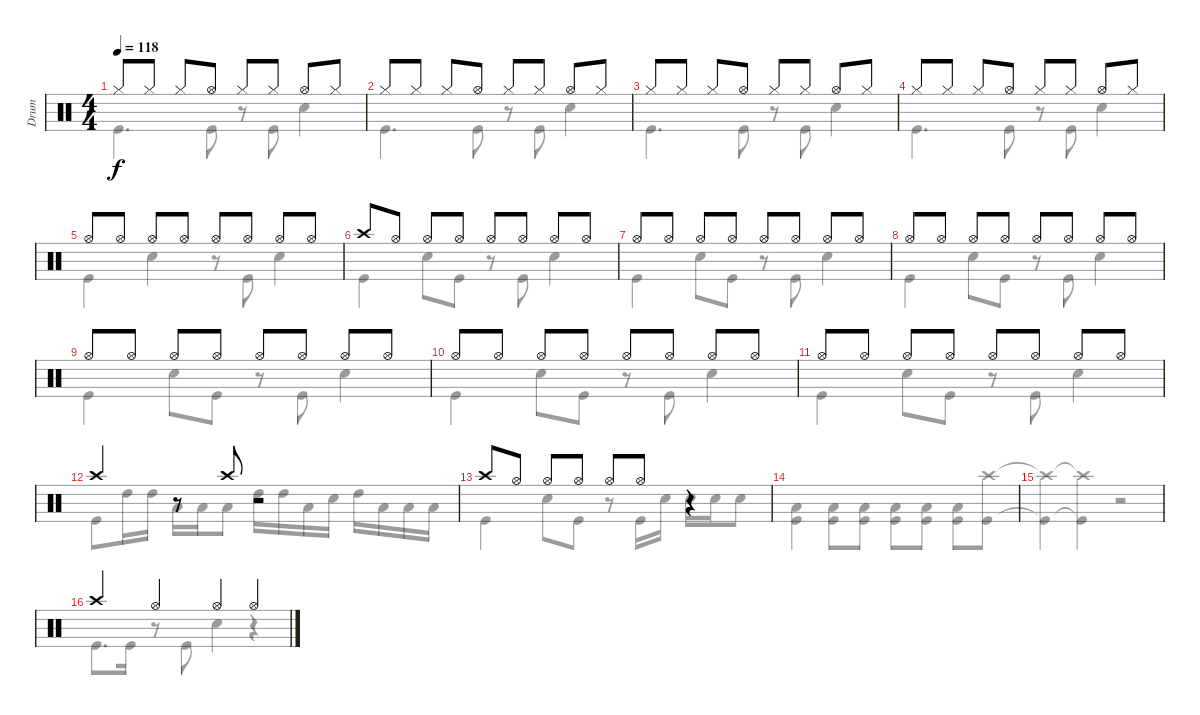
\track ("Drum" "Drum") {instrument percussion}
\staff {score}
\articulation defaults
\voice
\ts (4 4)
\tempo 118
\clef neutral
\ks c "Hi-Hat (closed)".8{dy f} "Hi-Hat (closed)".8 "Hi-Hat (closed)".8 "Hi-Hat (open)".8 "Hi-Hat (closed)".8 "Hi-Hat (closed)".8 "Hi-Hat (open)".8 "Hi-Hat (closed)".8
|
"Hi-Hat (closed)".8 "Hi-Hat (closed)".8 "Hi-Hat (closed)".8 "Hi-Hat (open)".8 "Hi-Hat (closed)".8 "Hi-Hat (closed)".8 "Hi-Hat (open)".8 "Hi-Hat (closed)".8 |
"Hi-Hat (closed)".8 "Hi-Hat (closed)".8 "Hi-Hat (closed)".8 "Hi-Hat (open)".8 "Hi-Hat (closed)".8 "Hi-Hat (closed)".8 "Hi-Hat (open)".8 "Hi-Hat (closed)".8 |
"Hi-Hat (closed)".8 "Hi-Hat (closed)".8 "Hi-Hat (closed)".8 "Hi-Hat (open)".8 "Hi-Hat (closed)".8 "Hi-Hat (closed)".8 "Hi-Hat (open)".8 "Hi-Hat (closed)".8 |
"Hi-Hat (open)".8 "Hi-Hat (open)".8 "Hi-Hat (open)".8 "Hi-Hat (open)".8 "Hi-Hat (open)".8 "Hi-Hat (open)".8 "Hi-Hat (open)".8 "Hi-Hat (open)".8 |
"Crash high (hit)".8 "Hi-Hat (open)".8 "Hi-Hat (open)".8 "Hi-Hat (open)".8 "Hi-Hat (open)".8 "Hi-Hat (open)".8 "Hi-Hat (open)".8 "Hi-Hat (open)".8 |
"Hi-Hat (open)".8 "Hi-Hat (open)".8 "Hi-Hat (open)".8 "Hi-Hat (open)".8 "Hi-Hat (open)".8 "Hi-Hat (open)".8 "Hi-Hat (open)".8 "Hi-Hat (open)".8 |
"Hi-Hat (open)".8 "Hi-Hat (open)".8 "Hi-Hat (open)".8 "Hi-Hat (open)".8 "Hi-Hat (open)".8 "Hi-Hat (open)".8 "Hi-Hat (open)".8 "Hi-Hat (open)".8 |
"Hi-Hat (open)".8 "Hi-Hat (open)".8 "Hi-Hat (open)".8 "Hi-Hat (open)".8 "Hi-Hat (open)".8 "Hi-Hat (open)".8 "Hi-Hat (open)".8 "Hi-Hat (open)".8 |
"Hi-Hat (open)".8 "Hi-Hat (open)".8 "Hi-Hat (open)".8 "Hi-Hat (open)".8 "Hi-Hat (open)".8 "Hi-Hat (open)".8 "Hi-Hat (open)".8 "Hi-Hat (open)".8 |
"Hi-Hat (open)".8 "Hi-Hat (open)".8 "Hi-Hat (open)".8 "Hi-Hat (open)".8 "Hi-Hat (open)".8 "Hi-Hat (open)".8 "Hi-Hat (open)".8 "Hi-Hat (open)".8 |
"Crash high (hit)".4 r.8 "Crash high (hit)".8 r.2 |
"Crash high (hit)".8 "Hi-Hat (open)".8 "Hi-Hat (open)".8 "Hi-Hat (open)".8 "Hi-Hat (open)".8 "Hi-Hat (open)".8 r.4 |
|
|
"Crash high (hit)".4 "Hi-Hat (open)".4 "Hi-Hat (open)".4 "Hi-Hat (open)".4
\voice
\clef neutral
\ottava regular
\simile none
\ks c "Kick (hit)".4{d dy f} "Kick (hit)".8
r.8 "Kick (hit)".8 "Snare (hit) 2".4 |
"Kick (hit)".4{d} "Kick (hit)".8 r.8 "Kick (hit)".8 "Snare (hit) 2".4 |
"Kick (hit)".4{d} "Kick (hit)".8 r.8 "Kick (hit)".8 "Snare (hit) 2".4 |
"Kick (hit)".4{d} "Kick (hit)".8 r.8 "Kick (hit)".8 "Snare (hit) 2".4 |
"Kick (hit)".4 "Snare (hit) 2".4 r.8 "Kick (hit)".8 "Snare (hit) 2".4 |
"Kick (hit)".4 "Snare (hit) 2".8 "Kick (hit)".8 r.8 "Kick (hit)".8 "Snare (hit) 2".4 |
"Kick (hit)".4 "Snare (hit) 2".8 "Kick (hit)".8 r.8 "Kick (hit)".8 "Snare (hit) 2".4 |
"Kick (hit)".4 "Snare (hit) 2".8 "Kick (hit)".8 r.8 "Kick (hit)".8 "Snare (hit) 2".4 |
"Kick (hit)".4 "Snare (hit) 2".8 "Kick (hit)".8 r.8 "Kick (hit)".8 "Snare (hit) 2".4 |
"Kick (hit)".4 "Snare (hit) 2".8 "Kick (hit)".8 r.8 "Kick (hit)".8 "Snare (hit) 2".4 |
"Kick (hit)".4 "Snare (hit) 2".8 "Kick (hit)".8 r.8 "Kick (hit)".8 "Snare (hit) 2".4 |
"Kick (hit)".8 "High Tom (hit)".16 "High Tom (hit)".16 "Low Tom (hit)".16 "Low Tom (hit)".16 "Low Floor Tom (hit)".8 "High Tom (hit)".16 "High Tom (hit)".16 "Low Floor Tom (hit)".16 "Snare (hit) 2".16 "High Tom (hit)".16 "Low Tom (hit)".16 "Low Floor Tom (hit)".16 "Low Floor Tom (hit)".16 |
"Kick (hit)".4 "Snare (hit) 2".8 "Kick (hit)".8 r.8 "Kick (hit)".16 "Snare (hit) 2".16 "Snare (hit) 2".16 "Snare (hit) 2".16 "Snare (hit) 2".8 |
("Kick (hit)" "Low Floor Tom (hit)").4 ("Low Floor Tom (hit)" "Kick (hit)").8 ("Low Floor Tom (hit)" "Kick (hit)").8 ("Low Floor Tom (hit)" "Kick (hit)").8 ("Low Floor Tom (hit)" "Kick (hit)").8 ("Low Floor Tom (hit)" "Kick (hit)").8 ("Kick (hit)" "Crash high (hit)").8 |
("Kick (hit)"{t} "Crash high (hit)"{t}).4 ("Kick (hit)"{t} "Crash high (hit)"{t}).4 r.2 |
"Kick (hit)".8{d} "Kick (hit)".16 r.8 "Kick (hit)".8 "Snare (hit) 2".4 r.4
